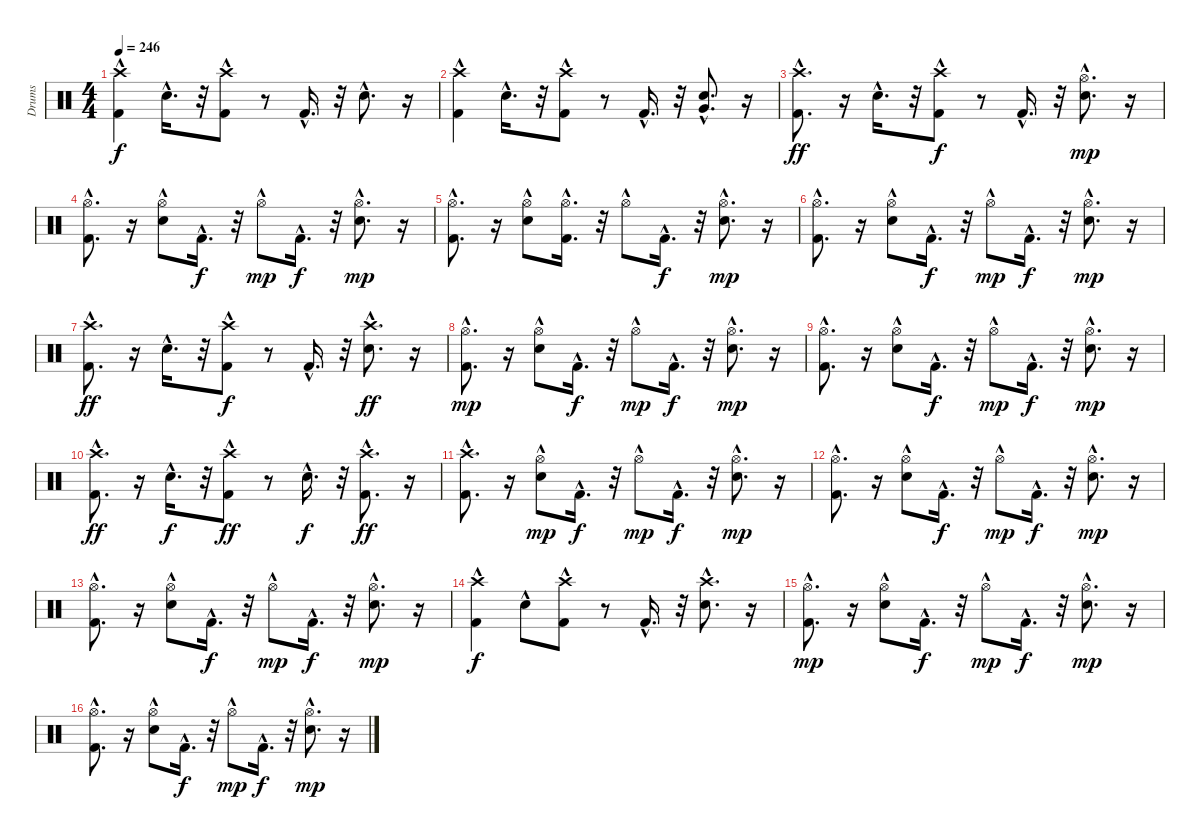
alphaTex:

\track ("Drums" "Drums") {instrument percussion}
\staff {score}
\articulation defaults
\ts (4 4)
\tempo 246
\clef neutral
\ks c
("Kick (hit) 2"{hac} "Crash high (hit)").4{dy f} "Electric Snare (hit)"{hac}.16{d} r.32 ("Kick (hit) 2"{hac} "Crash high (hit)").8 r.8 "Kick (hit) 2"{hac}.16{d} r.32 "Electric Snare (hit)"{hac}.8{d} r.16 |
("Kick (hit) 2"{hac} "Crash high (hit)").4 "Electric Snare (hit)"{hac}.16{d} r.32 ("Kick (hit) 2"{hac} "Crash high (hit)").8 r.8 "Kick (hit) 2"{hac}.16{d} r.32 ("Electric Snare (hit)"{hac} "Very Low Tom (hit)"{hac}).8{d} r.16 |
("Kick (hit) 2"{hac} "Crash high (hit)"{hac}).8{d dy ff} r.16 "Electric Snare (hit)"{hac}.16{d} r.32 ("Kick (hit) 2"{hac} "Crash high (hit)").8{dy f} r.8 "Kick (hit) 2"{hac}.16{d} r.32 ("Electric Snare (hit)"{hac} "Hi-Hat (open)"{hac}).8{d dy mp} r.16 |
("Kick (hit) 2"{hac} "Hi-Hat (open)"{hac}).8{d} r.16 ("Electric Snare (hit)"{hac} "Hi-Hat (open)"{hac}).8 "Kick (hit) 2"{hac}.16{d dy f} r.32 "Hi-Hat (open)"{hac}.8{dy mp} "Kick (hit) 2"{hac}.16{d dy f} r.32 ("Electric Snare (hit)"{hac} "Hi-Hat (open)"{hac}).8{d dy mp} r.16 |
("Kick (hit) 2"{hac} "Hi-Hat (open)"{hac}).8{d} r.16 ("Electric Snare (hit)"{hac} "Hi-Hat (open)"{hac}).8 ("Kick (hit) 2"{hac} "Hi-Hat (open)"{hac}).16{d} r.32 "Hi-Hat (open)"{hac}.8 "Kick (hit) 2"{hac}.16{d dy f} r.32 ("Electric Snare (hit)"{hac} "Hi-Hat (open)"{hac}).8{d dy mp} r.16 |
("Kick (hit) 2"{hac} "Hi-Hat (open)"{hac}).8{d} r.16 ("Electric Snare (hit)"{hac} "Hi-Hat (open)"{hac}).8 "Kick (hit) 2"{hac}.16{d dy f} r.32 "Hi-Hat (open)"{hac}.8{dy mp} "Kick (hit) 2"{hac}.16{d dy f} r.32 ("Electric Snare (hit)"{hac} "Hi-Hat (open)"{hac}).8{d dy mp} r.16 |
("Kick (hit) 2"{hac} "Crash high (hit)"{hac}).8{d dy ff} r.16 "Electric Snare (hit)"{hac}.16{d} r.32 ("Kick (hit) 2"{hac} "Crash high (hit)").8{dy f} r.8 "Kick (hit) 2"{hac}.16{d} r.32 ("Electric Snare (hit)"{hac} "Crash high (hit)"{hac}).8{d dy ff} r.16 |
("Kick (hit) 2"{hac} "Hi-Hat (open)"{hac}).8{d dy mp} r.16 ("Electric Snare (hit)"{hac} "Hi-Hat (open)"{hac}).8 "Kick (hit) 2"{hac}.16{d dy f} r.32 "Hi-Hat (open)"{hac}.8{dy mp} "Kick (hit) 2"{hac}.16{d dy f} r.32 ("Electric Snare (hit)"{hac} "Hi-Hat (open)"{hac}).8{d dy mp} r.16 |
("Kick (hit) 2"{hac} "Hi-Hat (open)"{hac}).8{d} r.16 ("Electric Snare (hit)"{hac} "Hi-Hat (open)"{hac}).8 "Kick (hit) 2"{hac}.16{d dy f} r.32 "Hi-Hat (open)"{hac}.8{dy mp} "Kick (hit) 2"{hac}.16{d dy f} r.32 ("Electric Snare (hit)"{hac} "Hi-Hat (open)"{hac}).8{d dy mp} r.16 |
("Kick (hit) 2"{hac} "Crash high (hit)"{hac}).8{d dy ff} r.16 "Electric Snare (hit)"{hac}.16{d dy f} r.32 ("Kick (hit) 2"{hac} "Crash high (hit)").8{dy ff} r.8 "Electric Snare (hit)"{hac}.16{d dy f} r.32 ("Kick (hit) 2"{hac} "Crash high (hit)"{hac}).8{d dy ff} r.16 |
("Kick (hit) 2"{hac} "Crash high (hit)"{hac}).8{d} r.16 ("Electric Snare (hit)"{hac} "Hi-Hat (open)"{hac}).8{dy mp} "Kick (hit) 2"{hac}.16{d dy f} r.32 "Hi-Hat (open)"{hac}.8{dy mp} "Kick (hit) 2"{hac}.16{d dy f} r.32 ("Electric Snare (hit)"{hac} "Hi-Hat (open)"{hac}).8{d dy mp} r.16 |
("Kick (hit) 2"{hac} "Hi-Hat (open)"{hac}).8{d} r.16 ("Electric Snare (hit)"{hac} "Hi-Hat (open)"{hac}).8 "Kick (hit) 2"{hac}.16{d dy f} r.32 "Hi-Hat (open)"{hac}.8{dy mp} "Kick (hit) 2"{hac}.16{d dy f} r.32 ("Electric Snare (hit)"{hac} "Hi-Hat (open)"{hac}).8{d dy mp} r.16 |
("Kick (hit) 2"{hac} "Hi-Hat (open)"{hac}).8{d} r.16 ("Electric Snare (hit)"{hac} "Hi-Hat (open)"{hac}).8 "Kick (hit) 2"{hac}.16{d dy f} r.32 "Hi-Hat (open)"{hac}.8{dy mp} "Kick (hit) 2"{hac}.16{d dy f} r.32 ("Electric Snare (hit)"{hac} "Hi-Hat (open)"{hac}).8{d dy mp} r.16 |
("Kick (hit) 2"{hac} "Crash high (hit)").4{dy f} "Electric Snare (hit)"{hac}.8 ("Kick (hit) 2"{hac} "Crash high (hit)").8 r.8 "Kick (hit) 2"{hac}.16{d} r.32 ("Crash high (hit)"{hac} "Electric Snare (hit)"{hac}).8{d} r.16 |
("Kick (hit) 2"{hac} "Hi-Hat (open)"{hac}).8{d dy mp} r.16 ("Electric Snare (hit)"{hac} "Hi-Hat (open)"{hac}).8 "Kick (hit) 2"{hac}.16{d dy f} r.32 "Hi-Hat (open)"{hac}.8{dy mp} "Kick (hit) 2"{hac}.16{d dy f} r.32 ("Electric Snare (hit)"{hac} "Hi-Hat (open)"{hac}).8{d dy mp} r.16 |
("Kick (hit) 2"{hac} "Hi-Hat (open)"{hac}).8{d} r.16 ("Electric Snare (hit)"{hac} "Hi-Hat (open)"{hac}).8 "Kick (hit) 2"{hac}.16{d dy f} r.32 "Hi-Hat (open)"{hac}.8{dy mp} "Kick (hit) 2"{hac}.16{d dy f} r.32 ("Electric Snare (hit)"{hac} "Hi-Hat (open)"{hac}).8{d dy mp} r.16
